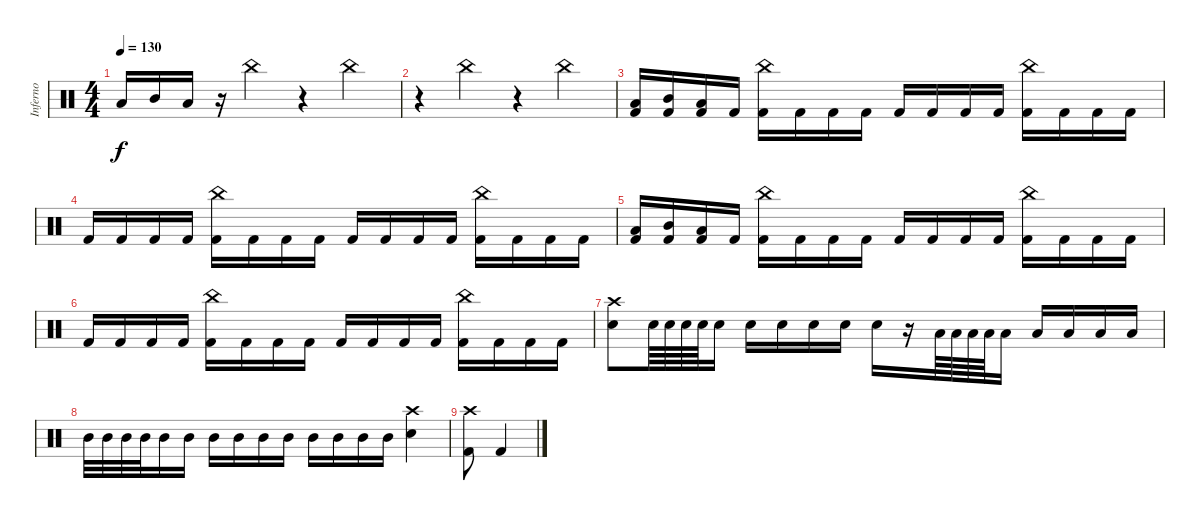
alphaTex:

\track ("Inferno" "Inferno") {instrument percussion}
\staff {score}
\articulation defaults
\ts (4 4)
\tempo 130
\clef neutral
\ks c "Low Tom (hit)".16{dy f} "Mid Tom (hit)".16 "Low Tom (hit)".16
r.16 "China (hit)".4 r.4 "China (hit)".4 |
r.4 "China (hit)".4 r.4 "China (hit)".4 |
("Low Tom (hit)" "Kick (hit) 2").16 ("Mid Tom (hit)" "Kick (hit) 2").16 ("Low Tom (hit)" "Kick (hit) 2").16 "Kick (hit) 2".16 ("China (hit)" "Kick (hit) 2").16 "Kick (hit) 2".16 "Kick (hit) 2".16 "Kick (hit) 2".16 "Kick (hit) 2".16 "Kick (hit) 2".16 "Kick (hit) 2".16 "Kick (hit) 2".16 ("China (hit)" "Kick (hit) 2").16 "Kick (hit) 2".16 "Kick (hit) 2".16 "Kick (hit) 2".16 |
"Kick (hit) 2".16 "Kick (hit) 2".16 "Kick (hit) 2".16 "Kick (hit) 2".16 ("China (hit)" "Kick (hit) 2").16 "Kick (hit) 2".16 "Kick (hit) 2".16 "Kick (hit) 2".16 "Kick (hit) 2".16 "Kick (hit) 2".16 "Kick (hit) 2".16 "Kick (hit) 2".16 ("China (hit)" "Kick (hit) 2").16 "Kick (hit) 2".16 "Kick (hit) 2".16 "Kick (hit) 2".16 |
("Low Tom (hit)" "Kick (hit) 2").16 ("Mid Tom (hit)" "Kick (hit) 2").16 ("Low Tom (hit)" "Kick (hit) 2").16 "Kick (hit) 2".16 ("China (hit)" "Kick (hit) 2").16 "Kick (hit) 2".16 "Kick (hit) 2".16 "Kick (hit) 2".16 "Kick (hit) 2".16 "Kick (hit) 2".16 "Kick (hit) 2".16 "Kick (hit) 2".16 ("China (hit)" "Kick (hit) 2").16 "Kick (hit) 2".16 "Kick (hit) 2".16 "Kick (hit) 2".16 |
"Kick (hit) 2".16 "Kick (hit) 2".16 "Kick (hit) 2".16 "Kick (hit) 2".16 ("China (hit)" "Kick (hit) 2").16 "Kick (hit) 2".16 "Kick (hit) 2".16 "Kick (hit) 2".16 "Kick (hit) 2".16 "Kick (hit) 2".16 "Kick (hit) 2".16 "Kick (hit) 2".16 ("China (hit)" "Kick (hit) 2").16 "Kick (hit) 2".16 "Kick (hit) 2".16 "Kick (hit) 2".16 |
("Crash high (hit)" "Snare (hit) 2").8 "Snare (hit) 2".64 "Snare (hit) 2".64 "Snare (hit) 2".64 "Snare (hit) 2".64 "Snare (hit) 2".16 "Snare (hit) 2".16 "Snare (hit) 2".16 "Snare (hit) 2".16 "Snare (hit) 2".16 "Snare (hit) 2".16 r.16 "Low Tom (hit)".64 "Low Tom (hit)".64 "Low Tom (hit)".64 "Low Tom (hit)".64 "Low Tom (hit)".16 "Low Tom (hit)".16 "Low Tom (hit)".16 "Low Tom (hit)".16 "Low Tom (hit)".16 |
"Mid Tom (hit)".32 "Mid Tom (hit)".32 "Mid Tom (hit)".32 "Mid Tom (hit)".32 "Mid Tom (hit)".16 "Mid Tom (hit)".16 "Mid Tom (hit)".16 "Mid Tom (hit)".16 "Mid Tom (hit)".16 "Mid Tom (hit)".16 "Mid Tom (hit)".16 "Mid Tom (hit)".16 "Mid Tom (hit)".16 "Mid Tom (hit)".16 ("Crash high (hit)" "Snare (hit) 2").4 |
("Crash high (hit)" "Kick (hit) 2").8 "Kick (hit) 2".4
